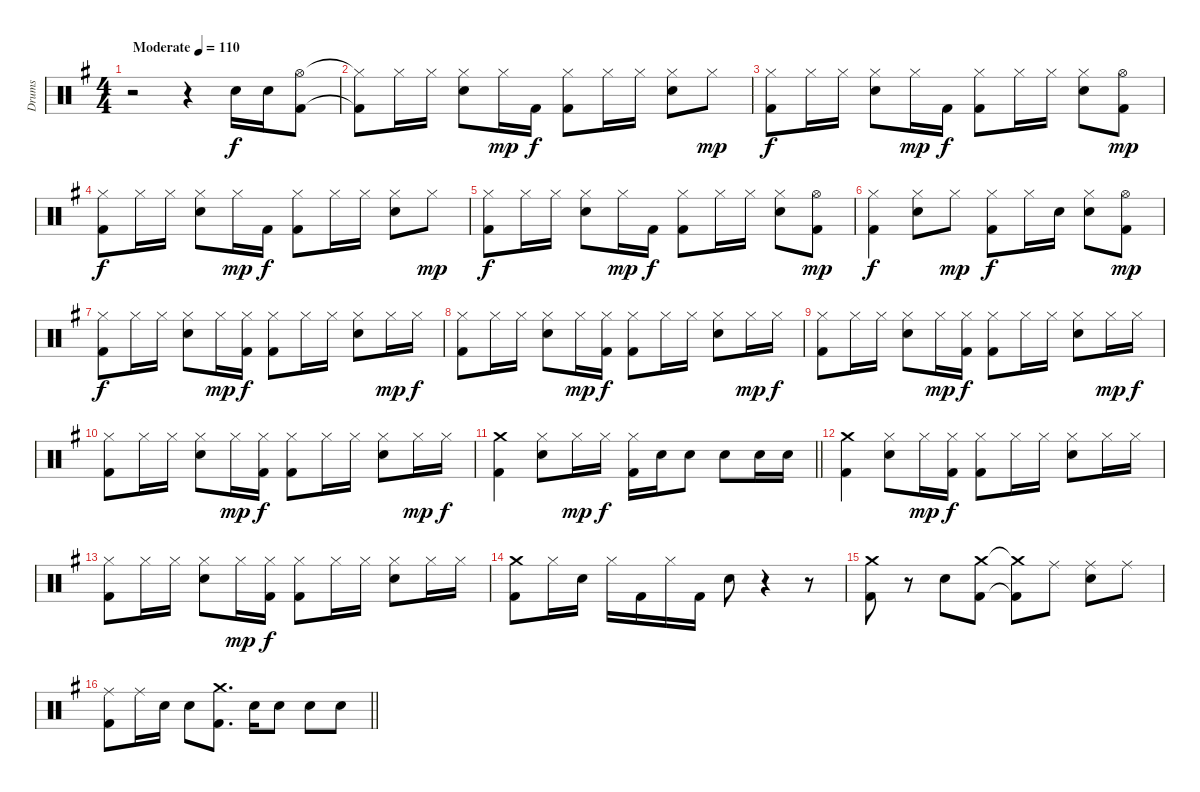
\track ("Drums" "Drums") {instrument percussion}
\staff {score}
\articulation defaults
\ts (4 4)
\tempo (110 "Moderate")
\clef neutral
\ks g
r.2{dy f} r.4 "Electric Snare (hit)".16 "Electric Snare (hit)".16 ("Hi-Hat (open)" "Kick (hit) 2").8 |
("Hi-Hat (closed)"{t} "Kick (hit) 2"{t}).8 "Hi-Hat (closed)".16 "Hi-Hat (closed)".16 ("Hi-Hat (closed)" "Electric Snare (hit)").8 "Hi-Hat (closed)".16{dy mp} "Kick (hit) 2".16{dy f} ("Hi-Hat (closed)" "Kick (hit) 2").8 "Hi-Hat (closed)".16 "Hi-Hat (closed)".16 ("Hi-Hat (closed)" "Electric Snare (hit)").8 "Hi-Hat (closed)".8{dy mp} |
("Hi-Hat (closed)" "Kick (hit) 2").8{dy f} "Hi-Hat (closed)".16 "Hi-Hat (closed)".16 ("Hi-Hat (closed)" "Electric Snare (hit)").8 "Hi-Hat (closed)".16{dy mp} "Kick (hit) 2".16{dy f} ("Hi-Hat (closed)" "Kick (hit) 2").8 "Hi-Hat (closed)".16 "Hi-Hat (closed)".16 ("Hi-Hat (closed)" "Electric Snare (hit)").8 ("Hi-Hat (open)" "Kick (hit) 2").8{dy mp} |
("Hi-Hat (closed)" "Kick (hit) 2").8{dy f} "Hi-Hat (closed)".16 "Hi-Hat (closed)".16 ("Hi-Hat (closed)" "Electric Snare (hit)").8 "Hi-Hat (closed)".16{dy mp} "Kick (hit) 2".16{dy f} ("Hi-Hat (closed)" "Kick (hit) 2").8 "Hi-Hat (closed)".16 "Hi-Hat (closed)".16 ("Hi-Hat (closed)" "Electric Snare (hit)").8 "Hi-Hat (closed)".8{dy mp} |
("Hi-Hat (closed)" "Kick (hit) 2").8{dy f} "Hi-Hat (closed)".16 "Hi-Hat (closed)".16 ("Hi-Hat (closed)" "Electric Snare (hit)").8 "Hi-Hat (closed)".16{dy mp} "Kick (hit) 2".16{dy f} ("Hi-Hat (closed)" "Kick (hit) 2").8 "Hi-Hat (closed)".16 "Hi-Hat (closed)".16 ("Hi-Hat (closed)" "Electric Snare (hit)").8 ("Hi-Hat (open)" "Kick (hit) 2").8{dy mp} |
("Hi-Hat (closed)" "Kick (hit) 2").4{dy f} ("Hi-Hat (closed)" "Electric Snare (hit)").8 "Hi-Hat (closed)".8{dy mp} ("Hi-Hat (closed)" "Kick (hit) 2").8{dy f} "Hi-Hat (closed)".16 "Electric Snare (hit)".16 ("Hi-Hat (closed)" "Electric Snare (hit)").8 ("Hi-Hat (open)" "Kick (hit) 2").8{dy mp} |
("Hi-Hat (closed)" "Kick (hit) 2").8{dy f} "Hi-Hat (closed)".16 "Hi-Hat (closed)".16 ("Hi-Hat (closed)" "Electric Snare (hit)").8 "Hi-Hat (closed)".16{dy mp} ("Hi-Hat (closed)" "Kick (hit) 2").16{dy f} ("Hi-Hat (closed)" "Kick (hit) 2").8 "Hi-Hat (closed)".16 "Hi-Hat (closed)".16 ("Hi-Hat (closed)" "Electric Snare (hit)").8 "Hi-Hat (closed)".16{dy mp} "Hi-Hat (closed)".16{dy f} |
("Hi-Hat (closed)" "Kick (hit) 2").8 "Hi-Hat (closed)".16 "Hi-Hat (closed)".16 ("Hi-Hat (closed)" "Electric Snare (hit)").8 "Hi-Hat (closed)".16{dy mp} ("Hi-Hat (closed)" "Kick (hit) 2").16{dy f} ("Hi-Hat (closed)" "Kick (hit) 2").8 "Hi-Hat (closed)".16 "Hi-Hat (closed)".16 ("Hi-Hat (closed)" "Electric Snare (hit)").8 "Hi-Hat (closed)".16{dy mp} "Hi-Hat (closed)".16{dy f} |
("Hi-Hat (closed)" "Kick (hit) 2").8 "Hi-Hat (closed)".16 "Hi-Hat (closed)".16 ("Hi-Hat (closed)" "Electric Snare (hit)").8 "Hi-Hat (closed)".16{dy mp} ("Hi-Hat (closed)" "Kick (hit) 2").16{dy f} ("Hi-Hat (closed)" "Kick (hit) 2").8 "Hi-Hat (closed)".16 "Hi-Hat (closed)".16 ("Hi-Hat (closed)" "Electric Snare (hit)").8 "Hi-Hat (closed)".16{dy mp} "Hi-Hat (closed)".16{dy f} |
("Hi-Hat (closed)" "Kick (hit) 2").8 "Hi-Hat (closed)".16 "Hi-Hat (closed)".16 ("Hi-Hat (closed)" "Electric Snare (hit)").8 "Hi-Hat (closed)".16{dy mp} ("Hi-Hat (closed)" "Kick (hit) 2").16{dy f} ("Hi-Hat (closed)" "Kick (hit) 2").8 "Hi-Hat (closed)".16 "Hi-Hat (closed)".16 ("Hi-Hat (closed)" "Electric Snare (hit)").8 "Hi-Hat (closed)".16{dy mp} "Hi-Hat (closed)".16{dy f} |
\barLineRight lightlight
("Crash medium (hit)" "Kick (hit) 2").4 ("Hi-Hat (closed)" "Electric Snare (hit)").8 "Hi-Hat (closed)".16{dy mp} "Hi-Hat (closed)".16{dy f} ("Hi-Hat (closed)" "Kick (hit) 2").16 "Electric Snare (hit)".16 "Electric Snare (hit)".8 "Electric Snare (hit)".8 "Electric Snare (hit)".16 "Electric Snare (hit)".16 |
("Crash medium (hit)" "Kick (hit) 2").4 ("Hi-Hat (closed)" "Electric Snare (hit)").8 "Hi-Hat (closed)".16{dy mp} ("Hi-Hat (closed)" "Kick (hit) 2").16{dy f} ("Hi-Hat (closed)" "Kick (hit) 2").8 "Hi-Hat (closed)".16 "Hi-Hat (closed)".16 ("Hi-Hat (closed)" "Electric Snare (hit)").8 "Hi-Hat (closed)".16 "Hi-Hat (closed)".16 |
("Hi-Hat (closed)" "Kick (hit) 2").8 "Hi-Hat (closed)".16 "Hi-Hat (closed)".16 ("Hi-Hat (closed)" "Electric Snare (hit)").8 "Hi-Hat (closed)".16{dy mp} ("Hi-Hat (closed)" "Kick (hit) 2").16{dy f} ("Hi-Hat (closed)" "Kick (hit) 2").8 "Hi-Hat (closed)".16 "Hi-Hat (closed)".16 ("Hi-Hat (closed)" "Electric Snare (hit)").8 "Hi-Hat (closed)".16 "Hi-Hat (closed)".16 |
("Crash medium (hit)" "Kick (hit) 2").8 "Hi-Hat (closed)".16 "Electric Snare (hit)".16 "Hi-Hat (closed)".16 "Kick (hit) 2".16 "Hi-Hat (closed)".16 "Kick (hit) 2".16 "Electric Snare (hit)".8 r.4 r.8 |
("Crash medium (hit)" "Kick (hit) 2").8 r.8 "Electric Snare (hit)".8 ("Crash medium (hit)" "Kick (hit) 2").8 ("Crash medium (hit)"{t} "Kick (hit) 2"{t}).8 "Ride (middle)".8 ("Ride (middle)" "Electric Snare (hit)").8 "Ride (middle)".8 |
\barLineRight lightlight
("Ride (middle)" "Kick (hit) 2").8 "Ride (middle)".16 "Electric Snare (hit)".16 "Electric Snare (hit)".8 ("Crash medium (hit)" "Kick (hit) 2").8{d} "Electric Snare (hit)".16 "Electric Snare (hit)".8 "Electric Snare (hit)".8 "Electric Snare (hit)".8
